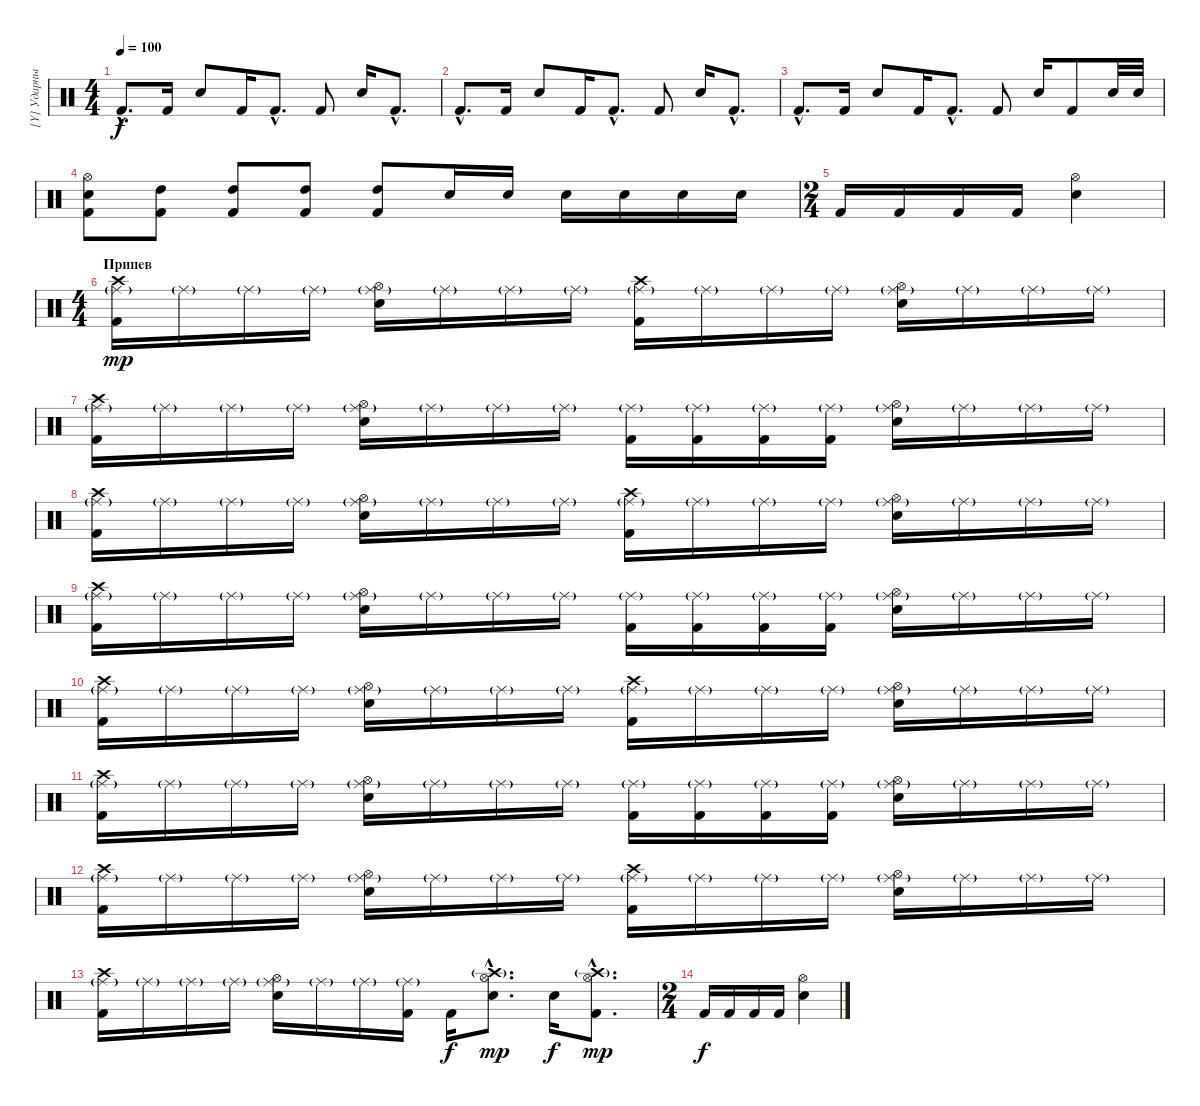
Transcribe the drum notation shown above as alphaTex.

\track ("[Y] Ударные [Stewart]" "[Y] Ударны") {instrument percussion}
\staff {score}
\articulation defaults
\ts (4 4)
\tempo 100
\clef neutral
\ks c "Kick (hit) 2"{hac}.8{d dy f} "Kick (hit) 2".16 "Electric Snare (hit)".8 "Kick (hit) 2".16 "Kick (hit) 2"{hac}.8{d} "Kick (hit) 2".8 "Electric Snare (hit)".16 "Kick (hit) 2"{hac}.8{d}
|
"Kick (hit) 2"{hac}.8{d} "Kick (hit) 2".16 "Electric Snare (hit)".8 "Kick (hit) 2".16 "Kick (hit) 2"{hac}.8{d} "Kick (hit) 2".8 "Electric Snare (hit)".16 "Kick (hit) 2"{hac}.8{d} |
"Kick (hit) 2"{hac}.8{d} "Kick (hit) 2".16 "Electric Snare (hit)".8 "Kick (hit) 2".16 "Kick (hit) 2"{hac}.8{d} "Kick (hit) 2".8 "Electric Snare (hit)".16 "Kick (hit) 2".8 "Electric Snare (hit)".32 "Electric Snare (hit)".32 |
("Hi-Hat (open)" "Electric Snare (hit)" "Kick (hit) 2").8 ("High Tom (hit)" "Kick (hit) 2").8 ("High Tom (hit)" "Kick (hit) 2").8 ("High Tom (hit)" "Kick (hit) 2").8 ("High Tom (hit)" "Kick (hit) 2").8 "Electric Snare (hit)".16 "Electric Snare (hit)".16 "Electric Snare (hit)".16 "Electric Snare (hit)".16 "Electric Snare (hit)".16 "Electric Snare (hit)".16 |
\ts (2 4)
"Kick (hit) 2".16 "Kick (hit) 2".16 "Kick (hit) 2".16 "Kick (hit) 2".16 ("Hi-Hat (open)" "Electric Snare (hit)").4 |
\ts (4 4)
\section ("" "Припев")
("Crash high (hit)" "Ride (middle)"{g} "Kick (hit) 2").16{dy mp} "Ride (middle)"{g}.16 "Ride (middle)"{g}.16 "Ride (middle)"{g}.16 ("Ride (middle)"{g} "Hi-Hat (open)" "Electric Snare (hit)").16 "Ride (middle)"{g}.16 "Ride (middle)"{g}.16 "Ride (middle)"{g}.16 ("Crash high (hit)" "Ride (middle)"{g} "Kick (hit) 2").16 "Ride (middle)"{g}.16 "Ride (middle)"{g}.16 "Ride (middle)"{g}.16 ("Ride (middle)"{g} "Hi-Hat (open)" "Electric Snare (hit)").16 "Ride (middle)"{g}.16 "Ride (middle)"{g}.16 "Ride (middle)"{g}.16 |
("Crash high (hit)" "Ride (middle)"{g} "Kick (hit) 2").16 "Ride (middle)"{g}.16 "Ride (middle)"{g}.16 "Ride (middle)"{g}.16 ("Ride (middle)"{g} "Hi-Hat (open)" "Electric Snare (hit)").16 "Ride (middle)"{g}.16 "Ride (middle)"{g}.16 "Ride (middle)"{g}.16 ("Ride (middle)"{g} "Kick (hit) 2").16 ("Ride (middle)"{g} "Kick (hit) 2").16 ("Ride (middle)"{g} "Kick (hit) 2").16 ("Ride (middle)"{g} "Kick (hit) 2").16 ("Ride (middle)"{g} "Hi-Hat (open)" "Electric Snare (hit)").16 "Ride (middle)"{g}.16 "Ride (middle)"{g}.16 "Ride (middle)"{g}.16 |
("Crash high (hit)" "Ride (middle)"{g} "Kick (hit) 2").16 "Ride (middle)"{g}.16 "Ride (middle)"{g}.16 "Ride (middle)"{g}.16 ("Ride (middle)"{g} "Hi-Hat (open)" "Electric Snare (hit)").16 "Ride (middle)"{g}.16 "Ride (middle)"{g}.16 "Ride (middle)"{g}.16 ("Crash high (hit)" "Ride (middle)"{g} "Kick (hit) 2").16 "Ride (middle)"{g}.16 "Ride (middle)"{g}.16 "Ride (middle)"{g}.16 ("Ride (middle)"{g} "Hi-Hat (open)" "Electric Snare (hit)").16 "Ride (middle)"{g}.16 "Ride (middle)"{g}.16 "Ride (middle)"{g}.16 |
("Crash high (hit)" "Ride (middle)"{g} "Kick (hit) 2").16 "Ride (middle)"{g}.16 "Ride (middle)"{g}.16 "Ride (middle)"{g}.16 ("Ride (middle)"{g} "Hi-Hat (open)" "Electric Snare (hit)").16 "Ride (middle)"{g}.16 "Ride (middle)"{g}.16 "Ride (middle)"{g}.16 ("Ride (middle)"{g} "Kick (hit) 2").16 ("Ride (middle)"{g} "Kick (hit) 2").16 ("Ride (middle)"{g} "Kick (hit) 2").16 ("Ride (middle)"{g} "Kick (hit) 2").16 ("Ride (middle)"{g} "Hi-Hat (open)" "Electric Snare (hit)").16 "Ride (middle)"{g}.16 "Ride (middle)"{g}.16 "Ride (middle)"{g}.16 |
("Crash high (hit)" "Ride (middle)"{g} "Kick (hit) 2").16 "Ride (middle)"{g}.16 "Ride (middle)"{g}.16 "Ride (middle)"{g}.16 ("Ride (middle)"{g} "Hi-Hat (open)" "Electric Snare (hit)").16 "Ride (middle)"{g}.16 "Ride (middle)"{g}.16 "Ride (middle)"{g}.16 ("Crash high (hit)" "Ride (middle)"{g} "Kick (hit) 2").16 "Ride (middle)"{g}.16 "Ride (middle)"{g}.16 "Ride (middle)"{g}.16 ("Ride (middle)"{g} "Hi-Hat (open)" "Electric Snare (hit)").16 "Ride (middle)"{g}.16 "Ride (middle)"{g}.16 "Ride (middle)"{g}.16 |
("Crash high (hit)" "Ride (middle)"{g} "Kick (hit) 2").16 "Ride (middle)"{g}.16 "Ride (middle)"{g}.16 "Ride (middle)"{g}.16 ("Ride (middle)"{g} "Hi-Hat (open)" "Electric Snare (hit)").16 "Ride (middle)"{g}.16 "Ride (middle)"{g}.16 "Ride (middle)"{g}.16 ("Ride (middle)"{g} "Kick (hit) 2").16 ("Ride (middle)"{g} "Kick (hit) 2").16 ("Ride (middle)"{g} "Kick (hit) 2").16 ("Ride (middle)"{g} "Kick (hit) 2").16 ("Ride (middle)"{g} "Hi-Hat (open)" "Electric Snare (hit)").16 "Ride (middle)"{g}.16 "Ride (middle)"{g}.16 "Ride (middle)"{g}.16 |
("Crash high (hit)" "Ride (middle)"{g} "Kick (hit) 2").16 "Ride (middle)"{g}.16 "Ride (middle)"{g}.16 "Ride (middle)"{g}.16 ("Ride (middle)"{g} "Hi-Hat (open)" "Electric Snare (hit)").16 "Ride (middle)"{g}.16 "Ride (middle)"{g}.16 "Ride (middle)"{g}.16 ("Crash high (hit)" "Ride (middle)"{g} "Kick (hit) 2").16 "Ride (middle)"{g}.16 "Ride (middle)"{g}.16 "Ride (middle)"{g}.16 ("Ride (middle)"{g} "Hi-Hat (open)" "Electric Snare (hit)").16 "Ride (middle)"{g}.16 "Ride (middle)"{g}.16 "Ride (middle)"{g}.16 |
("Crash high (hit)" "Ride (middle)"{g} "Kick (hit) 2").16 "Ride (middle)"{g}.16 "Ride (middle)"{g}.16 "Ride (middle)"{g}.16 ("Ride (middle)"{g} "Hi-Hat (open)" "Electric Snare (hit)").16 "Ride (middle)"{g}.16 "Ride (middle)"{g}.16 ("Ride (middle)"{g} "Kick (hit) 2").16 "Kick (hit) 2".16{dy f} ("Crash high (hit)"{g hac} "Hi-Hat (open)"{hac} "Electric Snare (hit)"{hac}).8{d dy mp} "Electric Snare (hit)".16{dy f} ("Crash high (hit)"{g hac} "Hi-Hat (open)"{hac} "Kick (hit) 2"{hac}).8{d dy mp} |
\ts (2 4)
"Kick (hit) 2".16{dy f} "Kick (hit) 2".16 "Kick (hit) 2".16 "Kick (hit) 2".16 ("Hi-Hat (open)" "Electric Snare (hit)").4
